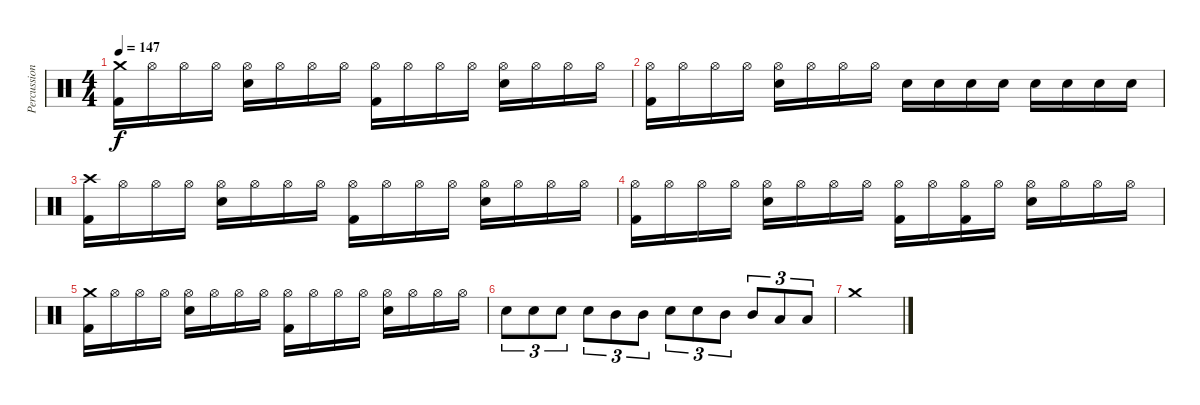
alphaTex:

\track ("Percussion" "Percussion") {instrument percussion}
\staff {score}
\articulation defaults
\ts (4 4)
\tempo 147
\clef neutral
\ks c
("Crash medium (hit)" "Kick (hit) 2").16{dy f} "Hi-Hat (open)".16 "Hi-Hat (open)".16 "Hi-Hat (open)".16 ("Hi-Hat (open)" "Snare (hit) 2").16 "Hi-Hat (open)".16 "Hi-Hat (open)".16 "Hi-Hat (open)".16 ("Hi-Hat (open)" "Kick (hit) 2").16 "Hi-Hat (open)".16 "Hi-Hat (open)".16 "Hi-Hat (open)".16 ("Hi-Hat (open)" "Snare (hit) 2").16 "Hi-Hat (open)".16 "Hi-Hat (open)".16 "Hi-Hat (open)".16 |
("Hi-Hat (open)" "Kick (hit) 2").16 "Hi-Hat (open)".16 "Hi-Hat (open)".16 "Hi-Hat (open)".16 ("Hi-Hat (open)" "Snare (hit) 2").16 "Hi-Hat (open)".16 "Hi-Hat (open)".16 "Hi-Hat (open)".16 "Snare (hit) 2".16 "Snare (hit) 2".16 "Snare (hit) 2".16 "Snare (hit) 2".16 "Snare (hit) 2".16 "Snare (hit) 2".16 "Snare (hit) 2".16 "Snare (hit) 2".16 |
("Crash high (hit)" "Kick (hit) 2").16 "Hi-Hat (open)".16 "Hi-Hat (open)".16 "Hi-Hat (open)".16 ("Hi-Hat (open)" "Snare (hit) 2").16 "Hi-Hat (open)".16 "Hi-Hat (open)".16 "Hi-Hat (open)".16 ("Hi-Hat (open)" "Kick (hit) 2").16 "Hi-Hat (open)".16 "Hi-Hat (open)".16 "Hi-Hat (open)".16 ("Hi-Hat (open)" "Snare (hit) 2").16 "Hi-Hat (open)".16 "Hi-Hat (open)".16 "Hi-Hat (open)".16 |
("Hi-Hat (open)" "Kick (hit) 2").16 "Hi-Hat (open)".16 "Hi-Hat (open)".16 "Hi-Hat (open)".16 ("Hi-Hat (open)" "Snare (hit) 2").16 "Hi-Hat (open)".16 "Hi-Hat (open)".16 "Hi-Hat (open)".16 ("Hi-Hat (open)" "Kick (hit) 2").16 "Hi-Hat (open)".16 ("Hi-Hat (open)" "Kick (hit) 2").16 "Hi-Hat (open)".16 ("Hi-Hat (open)" "Snare (hit) 2").16 "Hi-Hat (open)".16 "Hi-Hat (open)".16 "Hi-Hat (open)".16 |
("Crash medium (hit)" "Kick (hit) 2").16 "Hi-Hat (open)".16 "Hi-Hat (open)".16 "Hi-Hat (open)".16 ("Hi-Hat (open)" "Snare (hit) 2").16 "Hi-Hat (open)".16 "Hi-Hat (open)".16 "Hi-Hat (open)".16 ("Hi-Hat (open)" "Kick (hit) 2").16 "Hi-Hat (open)".16 "Hi-Hat (open)".16 "Hi-Hat (open)".16 ("Hi-Hat (open)" "Snare (hit) 2").16 "Hi-Hat (open)".16 "Hi-Hat (open)".16 "Hi-Hat (open)".16 |
"Snare (hit) 2".8{tu (3 2)} "Snare (hit) 2".8{tu (3 2)} "Snare (hit) 2".8{tu (3 2)} "Snare (hit) 2".8{tu (3 2)} "Mid Tom (hit)".8{tu (3 2)} "Mid Tom (hit)".8{tu (3 2)} "Snare (hit) 2".8{tu (3 2)} "Snare (hit) 2".8{tu (3 2)} "Mid Tom (hit)".8{tu (3 2)} "Mid Tom (hit)".8{tu (3 2)} "Low Tom (hit)".8{tu (3 2)} "Low Tom (hit)".8{tu (3 2)} |
"Crash medium (hit)".1
